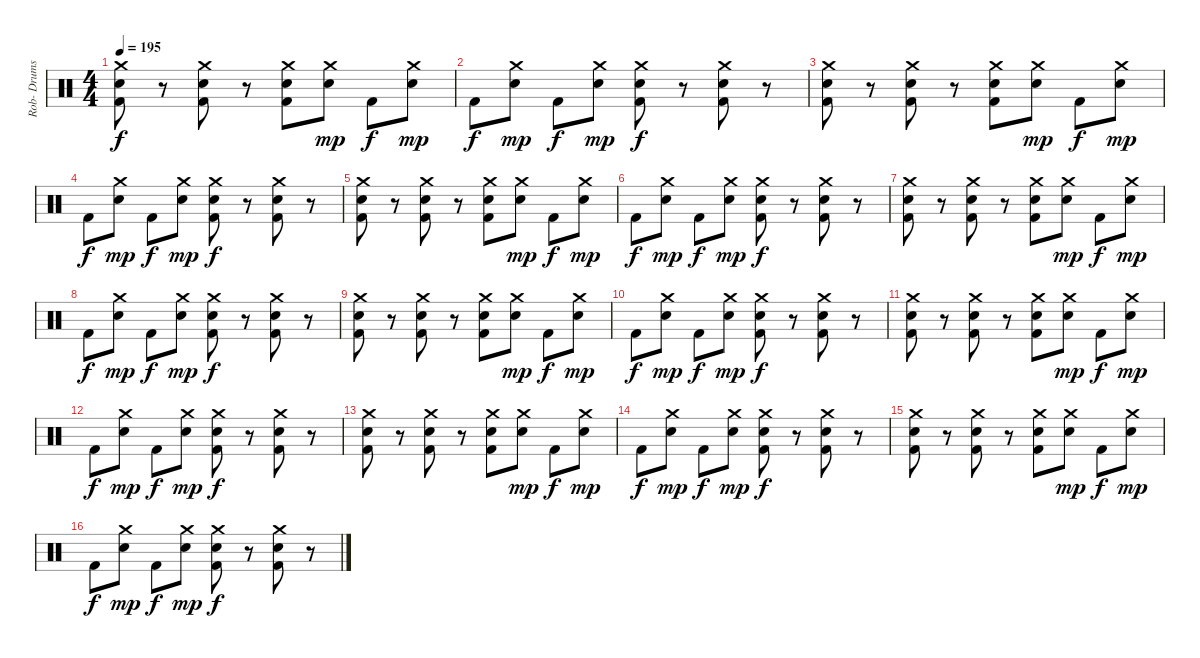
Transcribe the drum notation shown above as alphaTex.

\track ("Rob- Drums" "Rob- Drums") {instrument percussion}
\staff {score}
\articulation defaults
\ts (4 4)
\tempo 195
\clef neutral
\ks c
("Crash medium (hit)" "Electric Snare (hit)" "Kick (hit) 2").8{dy f} r.8 ("Crash medium (hit)" "Electric Snare (hit)" "Kick (hit) 2").8 r.8 ("Crash medium (hit)" "Electric Snare (hit)" "Kick (hit) 2").8 ("Crash medium (hit)" "Electric Snare (hit)").8{dy mp} "Kick (hit) 2".8{dy f} ("Crash medium (hit)" "Electric Snare (hit)").8{dy mp} |
"Kick (hit) 2".8{dy f} ("Crash medium (hit)" "Electric Snare (hit)").8{dy mp} "Kick (hit) 2".8{dy f} ("Crash medium (hit)" "Electric Snare (hit)").8{dy mp} ("Crash medium (hit)" "Electric Snare (hit)" "Kick (hit) 2").8{dy f} r.8 ("Crash medium (hit)" "Electric Snare (hit)" "Kick (hit) 2").8 r.8 |
("Crash medium (hit)" "Electric Snare (hit)" "Kick (hit) 2").8 r.8 ("Crash medium (hit)" "Electric Snare (hit)" "Kick (hit) 2").8 r.8 ("Crash medium (hit)" "Electric Snare (hit)" "Kick (hit) 2").8 ("Crash medium (hit)" "Electric Snare (hit)").8{dy mp} "Kick (hit) 2".8{dy f} ("Crash medium (hit)" "Electric Snare (hit)").8{dy mp} |
"Kick (hit) 2".8{dy f} ("Crash medium (hit)" "Electric Snare (hit)").8{dy mp} "Kick (hit) 2".8{dy f} ("Crash medium (hit)" "Electric Snare (hit)").8{dy mp} ("Crash medium (hit)" "Electric Snare (hit)" "Kick (hit) 2").8{dy f} r.8 ("Crash medium (hit)" "Electric Snare (hit)" "Kick (hit) 2").8 r.8 |
("Crash medium (hit)" "Electric Snare (hit)" "Kick (hit) 2").8 r.8 ("Crash medium (hit)" "Electric Snare (hit)" "Kick (hit) 2").8 r.8 ("Crash medium (hit)" "Electric Snare (hit)" "Kick (hit) 2").8 ("Crash medium (hit)" "Electric Snare (hit)").8{dy mp} "Kick (hit) 2".8{dy f} ("Crash medium (hit)" "Electric Snare (hit)").8{dy mp} |
"Kick (hit) 2".8{dy f} ("Crash medium (hit)" "Electric Snare (hit)").8{dy mp} "Kick (hit) 2".8{dy f} ("Crash medium (hit)" "Electric Snare (hit)").8{dy mp} ("Crash medium (hit)" "Electric Snare (hit)" "Kick (hit) 2").8{dy f} r.8 ("Crash medium (hit)" "Electric Snare (hit)" "Kick (hit) 2").8 r.8 |
("Crash medium (hit)" "Electric Snare (hit)" "Kick (hit) 2").8 r.8 ("Crash medium (hit)" "Electric Snare (hit)" "Kick (hit) 2").8 r.8 ("Crash medium (hit)" "Electric Snare (hit)" "Kick (hit) 2").8 ("Crash medium (hit)" "Electric Snare (hit)").8{dy mp} "Kick (hit) 2".8{dy f} ("Crash medium (hit)" "Electric Snare (hit)").8{dy mp} |
"Kick (hit) 2".8{dy f} ("Crash medium (hit)" "Electric Snare (hit)").8{dy mp} "Kick (hit) 2".8{dy f} ("Crash medium (hit)" "Electric Snare (hit)").8{dy mp} ("Crash medium (hit)" "Electric Snare (hit)" "Kick (hit) 2").8{dy f} r.8 ("Crash medium (hit)" "Electric Snare (hit)" "Kick (hit) 2").8 r.8 |
("Crash medium (hit)" "Electric Snare (hit)" "Kick (hit) 2").8 r.8 ("Crash medium (hit)" "Electric Snare (hit)" "Kick (hit) 2").8 r.8 ("Crash medium (hit)" "Electric Snare (hit)" "Kick (hit) 2").8 ("Crash medium (hit)" "Electric Snare (hit)").8{dy mp} "Kick (hit) 2".8{dy f} ("Crash medium (hit)" "Electric Snare (hit)").8{dy mp} |
"Kick (hit) 2".8{dy f} ("Crash medium (hit)" "Electric Snare (hit)").8{dy mp} "Kick (hit) 2".8{dy f} ("Crash medium (hit)" "Electric Snare (hit)").8{dy mp} ("Crash medium (hit)" "Electric Snare (hit)" "Kick (hit) 2").8{dy f} r.8 ("Crash medium (hit)" "Electric Snare (hit)" "Kick (hit) 2").8 r.8 |
("Crash medium (hit)" "Electric Snare (hit)" "Kick (hit) 2").8 r.8 ("Crash medium (hit)" "Electric Snare (hit)" "Kick (hit) 2").8 r.8 ("Crash medium (hit)" "Electric Snare (hit)" "Kick (hit) 2").8 ("Crash medium (hit)" "Electric Snare (hit)").8{dy mp} "Kick (hit) 2".8{dy f} ("Crash medium (hit)" "Electric Snare (hit)").8{dy mp} |
"Kick (hit) 2".8{dy f} ("Crash medium (hit)" "Electric Snare (hit)").8{dy mp} "Kick (hit) 2".8{dy f} ("Crash medium (hit)" "Electric Snare (hit)").8{dy mp} ("Crash medium (hit)" "Electric Snare (hit)" "Kick (hit) 2").8{dy f} r.8 ("Crash medium (hit)" "Electric Snare (hit)" "Kick (hit) 2").8 r.8 |
("Crash medium (hit)" "Electric Snare (hit)" "Kick (hit) 2").8 r.8 ("Crash medium (hit)" "Electric Snare (hit)" "Kick (hit) 2").8 r.8 ("Crash medium (hit)" "Electric Snare (hit)" "Kick (hit) 2").8 ("Crash medium (hit)" "Electric Snare (hit)").8{dy mp} "Kick (hit) 2".8{dy f} ("Crash medium (hit)" "Electric Snare (hit)").8{dy mp} |
"Kick (hit) 2".8{dy f} ("Crash medium (hit)" "Electric Snare (hit)").8{dy mp} "Kick (hit) 2".8{dy f} ("Crash medium (hit)" "Electric Snare (hit)").8{dy mp} ("Crash medium (hit)" "Electric Snare (hit)" "Kick (hit) 2").8{dy f} r.8 ("Crash medium (hit)" "Electric Snare (hit)" "Kick (hit) 2").8 r.8 |
("Crash medium (hit)" "Electric Snare (hit)" "Kick (hit) 2").8 r.8 ("Crash medium (hit)" "Electric Snare (hit)" "Kick (hit) 2").8 r.8 ("Crash medium (hit)" "Electric Snare (hit)" "Kick (hit) 2").8 ("Crash medium (hit)" "Electric Snare (hit)").8{dy mp} "Kick (hit) 2".8{dy f} ("Crash medium (hit)" "Electric Snare (hit)").8{dy mp} |
"Kick (hit) 2".8{dy f} ("Crash medium (hit)" "Electric Snare (hit)").8{dy mp} "Kick (hit) 2".8{dy f} ("Crash medium (hit)" "Electric Snare (hit)").8{dy mp} ("Crash medium (hit)" "Electric Snare (hit)" "Kick (hit) 2").8{dy f} r.8 ("Crash medium (hit)" "Electric Snare (hit)" "Kick (hit) 2").8 r.8
